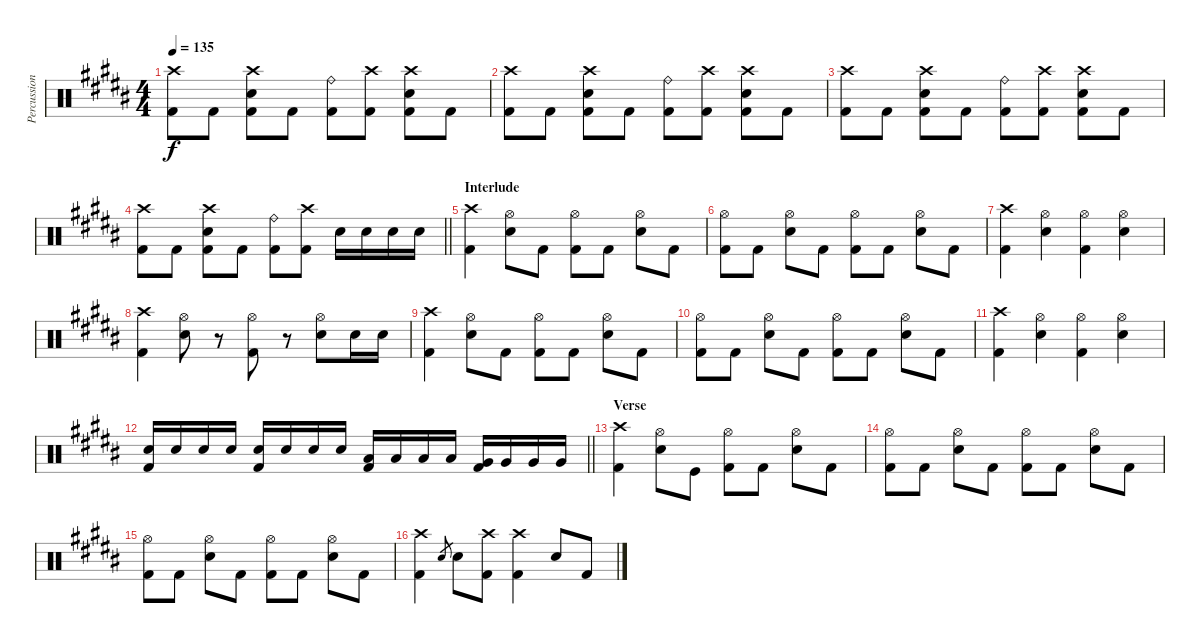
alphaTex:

\track ("Percussion" "Percussion") {instrument percussion}
\staff {score}
\articulation defaults
\ts (4 4)
\tempo 135
\clef neutral
\ks b
("Crash high (hit)" "Kick (hit) 2").8{dy f} "Kick (hit) 2".8 ("Crash high (hit)" "Electric Snare (hit)" "Kick (hit) 2").8 "Kick (hit) 2".8 ("Ride (bell)" "Kick (hit) 2").8 ("Crash high (hit)" "Kick (hit) 2").8 ("Crash high (hit)" "Electric Snare (hit)" "Kick (hit) 2").8 "Kick (hit) 2".8 |
("Crash high (hit)" "Kick (hit) 2").8 "Kick (hit) 2".8 ("Crash high (hit)" "Electric Snare (hit)" "Kick (hit) 2").8 "Kick (hit) 2".8 ("Ride (bell)" "Kick (hit) 2").8 ("Crash high (hit)" "Kick (hit) 2").8 ("Crash high (hit)" "Electric Snare (hit)" "Kick (hit) 2").8 "Kick (hit) 2".8 |
("Crash high (hit)" "Kick (hit) 2").8 "Kick (hit) 2".8 ("Crash high (hit)" "Electric Snare (hit)" "Kick (hit) 2").8 "Kick (hit) 2".8 ("Ride (bell)" "Kick (hit) 2").8 ("Crash high (hit)" "Kick (hit) 2").8 ("Crash high (hit)" "Electric Snare (hit)" "Kick (hit) 2").8 "Kick (hit) 2".8 |
\barLineRight lightlight
("Crash high (hit)" "Kick (hit) 2").8 "Kick (hit) 2".8 ("Crash high (hit)" "Electric Snare (hit)" "Kick (hit) 2").8 "Kick (hit) 2".8 ("Ride (bell)" "Kick (hit) 2").8 ("Crash high (hit)" "Kick (hit) 2").8 "Electric Snare (hit)".16 "Electric Snare (hit)".16 "Electric Snare (hit)".16 "Electric Snare (hit)".16 |
\section ("" "Interlude")
("Crash high (hit)" "Kick (hit) 2").4 ("Electric Snare (hit)" "Hi-Hat (open)").8 "Kick (hit) 2".8 ("Hi-Hat (open)" "Kick (hit) 2").8 "Kick (hit) 2".8 ("Hi-Hat (open)" "Electric Snare (hit)").8 "Kick (hit) 2".8 |
("Hi-Hat (open)" "Kick (hit) 2").8 "Kick (hit) 2".8 ("Electric Snare (hit)" "Hi-Hat (open)").8 "Kick (hit) 2".8 ("Hi-Hat (open)" "Kick (hit) 2").8 "Kick (hit) 2".8 ("Hi-Hat (open)" "Electric Snare (hit)").8 "Kick (hit) 2".8 |
("Crash high (hit)" "Kick (hit) 2").4 ("Hi-Hat (open)" "Electric Snare (hit)").4 ("Hi-Hat (open)" "Kick (hit) 2").4 ("Hi-Hat (open)" "Electric Snare (hit)").4 |
("Crash high (hit)" "Kick (hit) 2").4 ("Electric Snare (hit)" "Hi-Hat (open)").8 r.8 ("Hi-Hat (open)" "Kick (hit) 2").8 r.8 ("Hi-Hat (open)" "Electric Snare (hit)").8 "Electric Snare (hit)".16 "Electric Snare (hit)".16 |
("Crash high (hit)" "Kick (hit) 2").4 ("Electric Snare (hit)" "Hi-Hat (open)").8 "Kick (hit) 2".8 ("Hi-Hat (open)" "Kick (hit) 2").8 "Kick (hit) 2".8 ("Hi-Hat (open)" "Electric Snare (hit)").8 "Kick (hit) 2".8 |
("Hi-Hat (open)" "Kick (hit) 2").8 "Kick (hit) 2".8 ("Electric Snare (hit)" "Hi-Hat (open)").8 "Kick (hit) 2".8 ("Hi-Hat (open)" "Kick (hit) 2").8 "Kick (hit) 2".8 ("Hi-Hat (open)" "Electric Snare (hit)").8 "Kick (hit) 2".8 |
("Crash high (hit)" "Kick (hit) 2").4 ("Hi-Hat (open)" "Electric Snare (hit)").4 ("Hi-Hat (open)" "Kick (hit) 2").4 ("Hi-Hat (open)" "Electric Snare (hit)").4 |
\barLineRight lightlight
("Electric Snare (hit)" "Kick (hit) 2").16 "Electric Snare (hit)".16 "Electric Snare (hit)".16 "Electric Snare (hit)".16 ("Electric Snare (hit)" "Kick (hit) 2").16 "Electric Snare (hit)".16 "Electric Snare (hit)".16 "Electric Snare (hit)".16 ("Low Tom (hit)" "Kick (hit) 2").16 "Low Tom (hit)".16 "Low Tom (hit)".16 "Low Tom (hit)".16 ("Very Low Tom (hit)" "Kick (hit) 2").16 "Very Low Tom (hit)".16 "Very Low Tom (hit)".16 "Very Low Tom (hit)".16 |
\section ("" "Verse")
("Crash high (hit)" "Kick (hit) 2").4 ("Electric Snare (hit)" "Hi-Hat (open)").8 "Kick (hit)".8 ("Hi-Hat (open)" "Kick (hit) 2").8 "Kick (hit) 2".8 ("Electric Snare (hit)" "Hi-Hat (open)").8 "Kick (hit) 2".8 |
("Hi-Hat (open)" "Kick (hit) 2").8 "Kick (hit) 2".8 ("Electric Snare (hit)" "Hi-Hat (open)").8 "Kick (hit) 2".8 ("Hi-Hat (open)" "Kick (hit) 2").8 "Kick (hit) 2".8 ("Electric Snare (hit)" "Hi-Hat (open)").8 "Kick (hit) 2".8 |
("Hi-Hat (open)" "Kick (hit) 2").8 "Kick (hit) 2".8 ("Electric Snare (hit)" "Hi-Hat (open)").8 "Kick (hit) 2".8 ("Hi-Hat (open)" "Kick (hit) 2").8 "Kick (hit) 2".8 ("Electric Snare (hit)" "Hi-Hat (open)").8 "Kick (hit) 2".8 |
("Crash high (hit)" "Kick (hit) 2").4 "Electric Snare (hit)".8{gr} "Electric Snare (hit)".8 ("Crash high (hit)" "Kick (hit) 2").8 ("Crash high (hit)" "Kick (hit) 2").4 "Electric Snare (hit)".8 "Kick (hit) 2".8
